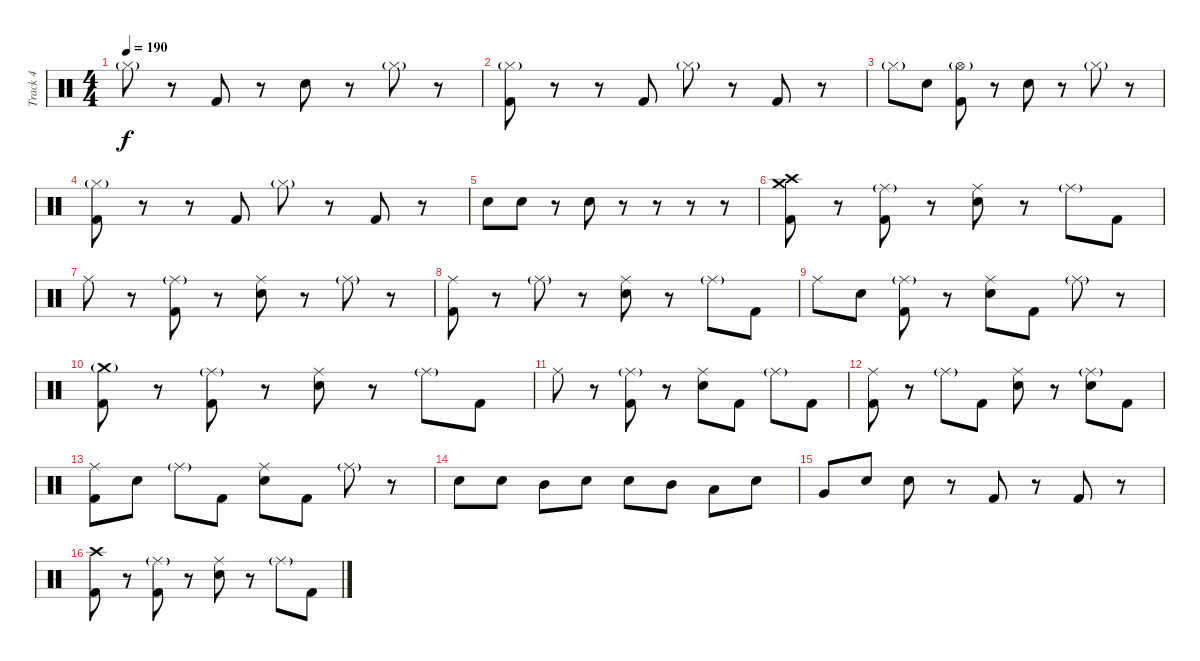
\track ("Track 4" "Track 4") {instrument percussion}
\staff {score}
\articulation defaults
\ts (4 4)
\tempo 190
\clef neutral
\ks c "Hi-Hat (closed)"{g}.8{dy f}
r.8 "Kick (hit) 2".8 r.8 "Electric Snare (hit)".8 r.8 "Hi-Hat (closed)"{g}.8 r.8 |
("Hi-Hat (closed)"{g} "Kick (hit) 2").8 r.8 r.8 "Kick (hit) 2".8 "Hi-Hat (closed)"{g}.8 r.8 "Kick (hit) 2".8 r.8 |
"Hi-Hat (closed)"{g}.8 "Electric Snare (hit)".8 ("Hi-Hat (open)"{g} "Kick (hit) 2").8 r.8 "Electric Snare (hit)".8 r.8 "Hi-Hat (closed)"{g}.8 r.8 |
("Hi-Hat (closed)"{g} "Kick (hit) 2").8 r.8 r.8 "Kick (hit) 2".8 "Hi-Hat (closed)"{g}.8 r.8 "Kick (hit) 2".8 r.8 |
"Electric Snare (hit)".8 "Electric Snare (hit)".8 r.8 "Electric Snare (hit)".8 r.8 r.8 r.8 r.8 |
("Crash medium (hit)" "Crash high (hit)" "Kick (hit) 2").8 r.8 ("Ride (middle)"{g} "Kick (hit) 2").8 r.8 ("Ride (middle)" "Electric Snare (hit)").8 r.8 "Ride (middle)"{g}.8 "Kick (hit) 2".8 |
"Ride (middle)".8 r.8 ("Ride (middle)"{g} "Kick (hit) 2").8 r.8 ("Ride (middle)" "Electric Snare (hit)").8 r.8 "Ride (middle)"{g}.8 r.8 |
("Ride (middle)" "Kick (hit) 2").8 r.8 "Ride (middle)"{g}.8 r.8 ("Ride (middle)" "Electric Snare (hit)").8 r.8 "Ride (middle)"{g}.8 "Kick (hit) 2".8 |
"Ride (middle)".8 "Electric Snare (hit)".8 ("Ride (middle)"{g} "Kick (hit) 2").8 r.8 ("Ride (middle)" "Electric Snare (hit)").8 "Kick (hit) 2".8 "Ride (middle)"{g}.8 r.8 |
("Crash medium (hit)"{g} "Kick (hit) 2").8 r.8 ("Ride (middle)"{g} "Kick (hit) 2").8 r.8 ("Ride (middle)" "Electric Snare (hit)").8 r.8 "Ride (middle)"{g}.8 "Kick (hit) 2".8 |
"Ride (middle)".8 r.8 ("Ride (middle)"{g} "Kick (hit) 2").8 r.8 ("Ride (middle)" "Electric Snare (hit)").8 "Kick (hit) 2".8 "Ride (middle)"{g}.8 "Kick (hit) 2".8 |
("Ride (middle)" "Kick (hit) 2").8 r.8 "Ride (middle)"{g}.8 "Kick (hit) 2".8 ("Ride (middle)" "Electric Snare (hit)").8 r.8 ("Ride (middle)"{g} "Electric Snare (hit)").8 "Kick (hit) 2".8 |
("Ride (middle)" "Kick (hit) 2").8 "Electric Snare (hit)".8 "Ride (middle)"{g}.8 "Kick (hit) 2".8 ("Ride (middle)" "Electric Snare (hit)").8 "Kick (hit) 2".8 "Ride (middle)"{g}.8 r.8 |
"Electric Snare (hit)".8 "Electric Snare (hit)".8 "Mid Tom (hit)".8 "Electric Snare (hit)".8 "Electric Snare (hit)".8 "Mid Tom (hit)".8 "Low Tom (hit)".8 "Electric Snare (hit)".8 |
"Very Low Tom (hit)".8 "Electric Snare (hit)".8 "Electric Snare (hit)".8 r.8 "Kick (hit) 2".8 r.8 "Kick (hit) 2".8 r.8 |
("Crash high (hit)" "Kick (hit) 2").8 r.8 ("Ride (middle)"{g} "Kick (hit) 2").8 r.8 ("Ride (middle)" "Electric Snare (hit)").8 r.8 "Ride (middle)"{g}.8 "Kick (hit) 2".8
